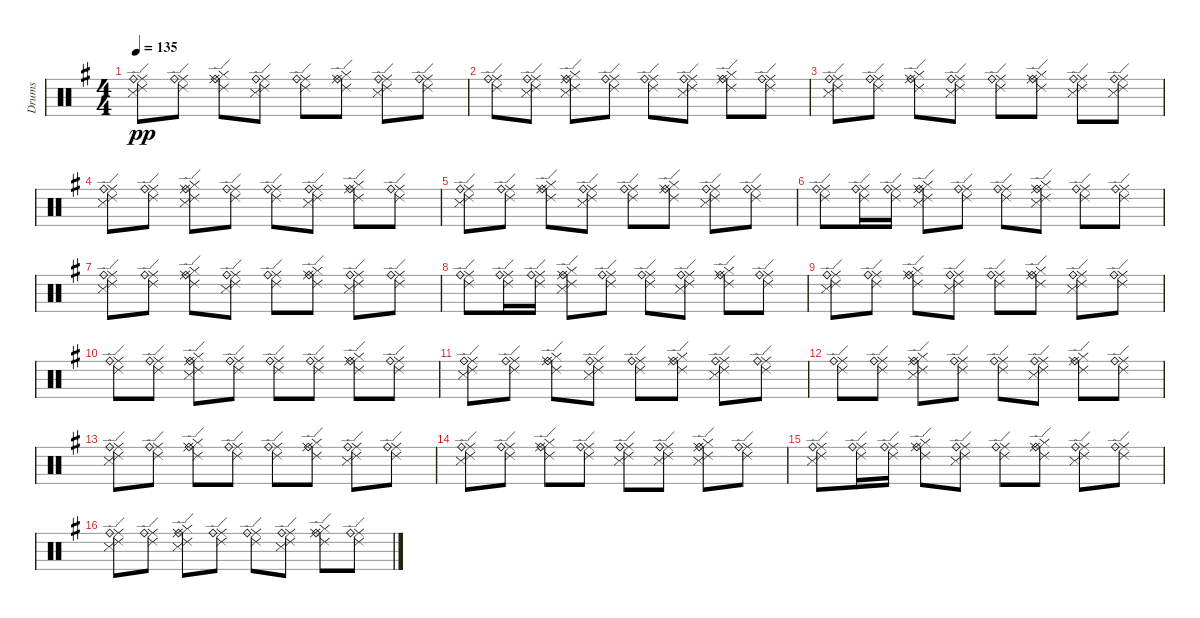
\track ("Drums" "Drums") {instrument percussion}
\staff {score}
\articulation defaults
\ts (4 4)
\tempo 135
\clef neutral
\ks eminor
("Ride (middle)" "Snare (side stick) 3" "Ride (edge) 2" "Ride (bell)").8{dy pp} ("Ride (middle)" "Ride (edge) 2" "Ride (bell)").8 ("Ride (middle)" "Hi-Hat (closed)" "Ride (edge) 2" "Ride (bell)").8 ("Ride (middle)" "Snare (side stick) 3" "Ride (edge) 2" "Ride (bell)").8 ("Ride (middle)" "Ride (edge) 2" "Ride (bell)").8 ("Ride (middle)" "Hi-Hat (closed)" "Ride (edge) 2" "Ride (bell)").8 ("Ride (middle)" "Snare (side stick) 3" "Ride (edge) 2" "Ride (bell)").8 ("Ride (middle)" "Ride (edge) 2" "Ride (bell)").8 |
("Ride (middle)" "Ride (edge) 2" "Ride (bell)").8 ("Ride (middle)" "Snare (side stick) 3" "Ride (edge) 2" "Ride (bell)").8 ("Ride (middle)" "Hi-Hat (closed)" "Snare (side stick) 3" "Ride (edge) 2" "Ride (bell)").8 ("Ride (middle)" "Ride (edge) 2" "Ride (bell)").8 ("Ride (middle)" "Ride (edge) 2" "Ride (bell)").8 ("Ride (middle)" "Snare (side stick) 3" "Ride (edge) 2" "Ride (bell)").8 ("Ride (middle)" "Hi-Hat (closed)" "Ride (edge) 2" "Ride (bell)").8 ("Ride (middle)" "Ride (edge) 2" "Ride (bell)").8 |
("Ride (middle)" "Snare (side stick) 3" "Ride (edge) 2" "Ride (bell)").8 ("Ride (middle)" "Ride (edge) 2" "Ride (bell)").8 ("Ride (middle)" "Hi-Hat (closed)" "Ride (edge) 2" "Ride (bell)").8 ("Ride (middle)" "Snare (side stick) 3" "Ride (edge) 2" "Ride (bell)").8 ("Ride (middle)" "Ride (edge) 2" "Ride (bell)").8 ("Ride (middle)" "Hi-Hat (closed)" "Ride (edge) 2" "Ride (bell)").8 ("Ride (middle)" "Snare (side stick) 3" "Ride (edge) 2" "Ride (bell)").8 ("Ride (middle)" "Snare (side stick) 3" "Ride (edge) 2" "Ride (bell)").8 |
("Ride (middle)" "Snare (side stick) 3" "Ride (edge) 2" "Ride (bell)").8 ("Ride (middle)" "Ride (edge) 2" "Ride (bell)").8 ("Ride (middle)" "Hi-Hat (closed)" "Snare (side stick) 3" "Ride (edge) 2" "Ride (bell)").8 ("Ride (middle)" "Ride (edge) 2" "Ride (bell)").8 ("Ride (middle)" "Ride (edge) 2" "Ride (bell)").8 ("Ride (middle)" "Snare (side stick) 3" "Ride (edge) 2" "Ride (bell)").8 ("Ride (middle)" "Hi-Hat (closed)" "Ride (edge) 2" "Ride (bell)").8 ("Ride (middle)" "Ride (edge) 2" "Ride (bell)").8 |
("Ride (middle)" "Snare (side stick) 3" "Ride (edge) 2" "Ride (bell)").8 ("Ride (middle)" "Ride (edge) 2" "Ride (bell)").8 ("Ride (middle)" "Hi-Hat (closed)" "Ride (edge) 2" "Ride (bell)").8 ("Ride (middle)" "Snare (side stick) 3" "Ride (edge) 2" "Ride (bell)").8 ("Ride (middle)" "Ride (edge) 2" "Ride (bell)").8 ("Ride (middle)" "Hi-Hat (closed)" "Ride (edge) 2" "Ride (bell)").8 ("Ride (middle)" "Snare (side stick) 3" "Ride (edge) 2" "Ride (bell)").8 ("Ride (middle)" "Ride (edge) 2" "Ride (bell)").8 |
("Ride (middle)" "Ride (edge) 2" "Ride (bell)").8 ("Ride (middle)" "Ride (edge) 2" "Ride (bell)").16 ("Ride (middle)" "Ride (edge) 2" "Ride (bell)").16 ("Ride (middle)" "Hi-Hat (closed)" "Snare (side stick) 3" "Ride (edge) 2" "Ride (bell)").8 ("Ride (middle)" "Ride (edge) 2" "Ride (bell)").8 ("Ride (middle)" "Ride (edge) 2" "Ride (bell)").8 ("Ride (middle)" "Hi-Hat (closed)" "Snare (side stick) 3" "Ride (edge) 2" "Ride (bell)").8 ("Ride (middle)" "Ride (edge) 2" "Ride (bell)").8 ("Ride (middle)" "Ride (edge) 2" "Ride (bell)").8 |
("Ride (middle)" "Snare (side stick) 3" "Ride (edge) 2" "Ride (bell)").8 ("Ride (middle)" "Ride (edge) 2" "Ride (bell)").8 ("Ride (middle)" "Hi-Hat (closed)" "Ride (edge) 2" "Ride (bell)").8 ("Ride (middle)" "Snare (side stick) 3" "Ride (edge) 2" "Ride (bell)").8 ("Ride (middle)" "Ride (edge) 2" "Ride (bell)").8 ("Ride (middle)" "Hi-Hat (closed)" "Ride (edge) 2" "Ride (bell)").8 ("Ride (middle)" "Snare (side stick) 3" "Ride (edge) 2" "Ride (bell)").8 ("Ride (middle)" "Ride (edge) 2" "Ride (bell)").8 |
("Ride (middle)" "Ride (edge) 2" "Ride (bell)").8 ("Ride (middle)" "Ride (edge) 2" "Ride (bell)").16 ("Ride (middle)" "Ride (edge) 2" "Ride (bell)").16 ("Ride (middle)" "Hi-Hat (closed)" "Snare (side stick) 3" "Ride (edge) 2" "Ride (bell)").8 ("Ride (middle)" "Ride (edge) 2" "Ride (bell)").8 ("Ride (middle)" "Ride (edge) 2" "Ride (bell)").8 ("Ride (middle)" "Snare (side stick) 3" "Ride (edge) 2" "Ride (bell)").8 ("Ride (middle)" "Hi-Hat (closed)" "Ride (edge) 2" "Ride (bell)").8 ("Ride (middle)" "Ride (edge) 2" "Ride (bell)").8 |
("Ride (middle)" "Snare (side stick) 3" "Ride (edge) 2" "Ride (bell)").8 ("Ride (middle)" "Ride (edge) 2" "Ride (bell)").8 ("Ride (middle)" "Hi-Hat (closed)" "Ride (edge) 2" "Ride (bell)").8 ("Ride (middle)" "Snare (side stick) 3" "Ride (edge) 2" "Ride (bell)").8 ("Ride (middle)" "Ride (edge) 2" "Ride (bell)").8 ("Ride (middle)" "Hi-Hat (closed)" "Ride (edge) 2" "Ride (bell)").8 ("Ride (middle)" "Snare (side stick) 3" "Ride (edge) 2" "Ride (bell)").8 ("Ride (middle)" "Ride (edge) 2" "Ride (bell)").8 |
("Ride (middle)" "Ride (edge) 2" "Ride (bell)").8 ("Ride (middle)" "Ride (edge) 2" "Ride (bell)").8 ("Ride (middle)" "Hi-Hat (closed)" "Snare (side stick) 3" "Ride (edge) 2" "Ride (bell)").8 ("Ride (middle)" "Ride (edge) 2" "Ride (bell)").8 ("Ride (middle)" "Ride (edge) 2" "Ride (bell)").8 ("Ride (middle)" "Ride (edge) 2" "Ride (bell)").8 ("Ride (middle)" "Hi-Hat (closed)" "Ride (edge) 2" "Ride (bell)").8 ("Ride (middle)" "Ride (edge) 2" "Ride (bell)").8 |
("Ride (middle)" "Snare (side stick) 3" "Ride (edge) 2" "Ride (bell)").8 ("Ride (middle)" "Ride (edge) 2" "Ride (bell)").8 ("Ride (middle)" "Hi-Hat (closed)" "Ride (edge) 2" "Ride (bell)").8 ("Ride (middle)" "Snare (side stick) 3" "Ride (edge) 2" "Ride (bell)").8 ("Ride (middle)" "Ride (edge) 2" "Ride (bell)").8 ("Ride (middle)" "Hi-Hat (closed)" "Ride (edge) 2" "Ride (bell)").8 ("Ride (middle)" "Snare (side stick) 3" "Ride (edge) 2" "Ride (bell)").8 ("Ride (middle)" "Ride (edge) 2" "Ride (bell)").8 |
("Ride (middle)" "Ride (edge) 2" "Ride (bell)").8 ("Ride (middle)" "Ride (edge) 2" "Ride (bell)").8 ("Ride (middle)" "Hi-Hat (closed)" "Snare (side stick) 3" "Ride (edge) 2" "Ride (bell)").8 ("Ride (middle)" "Ride (edge) 2" "Ride (bell)").8 ("Ride (middle)" "Ride (edge) 2" "Ride (bell)").8 ("Ride (middle)" "Snare (side stick) 3" "Ride (edge) 2" "Ride (bell)").8 ("Ride (middle)" "Hi-Hat (closed)" "Ride (edge) 2" "Ride (bell)").8 ("Ride (middle)" "Ride (edge) 2" "Ride (bell)").8 |
("Ride (middle)" "Snare (side stick) 3" "Ride (edge) 2" "Ride (bell)").8 ("Ride (middle)" "Ride (edge) 2" "Ride (bell)").8 ("Ride (middle)" "Hi-Hat (closed)" "Ride (edge) 2" "Ride (bell)").8 ("Ride (middle)" "Ride (edge) 2" "Ride (bell)").8 ("Ride (middle)" "Ride (edge) 2" "Ride (bell)").8 ("Ride (middle)" "Hi-Hat (closed)" "Ride (edge) 2" "Ride (bell)").8 ("Ride (middle)" "Snare (side stick) 3" "Ride (edge) 2" "Ride (bell)").8 ("Ride (middle)" "Ride (edge) 2" "Ride (bell)").8 |
("Ride (middle)" "Snare (side stick) 3" "Ride (edge) 2" "Ride (bell)").8 ("Ride (middle)" "Ride (edge) 2" "Ride (bell)").8 ("Ride (middle)" "Hi-Hat (closed)" "Ride (edge) 2" "Ride (bell)").8 ("Ride (middle)" "Ride (edge) 2" "Ride (bell)").8 ("Ride (middle)" "Snare (side stick) 3" "Ride (edge) 2" "Ride (bell)").8 ("Ride (middle)" "Snare (side stick) 3" "Ride (edge) 2" "Ride (bell)").8 ("Ride (middle)" "Hi-Hat (closed)" "Snare (side stick) 3" "Ride (edge) 2" "Ride (bell)").8 ("Ride (middle)" "Ride (edge) 2" "Ride (bell)").8 |
("Ride (middle)" "Snare (side stick) 3" "Ride (edge) 2" "Ride (bell)").8 ("Ride (middle)" "Ride (edge) 2" "Ride (bell)").16 ("Ride (middle)" "Ride (edge) 2" "Ride (bell)").16 ("Ride (middle)" "Hi-Hat (closed)" "Ride (edge) 2" "Ride (bell)").8 ("Ride (middle)" "Snare (side stick) 3" "Ride (edge) 2" "Ride (bell)").8 ("Ride (middle)" "Ride (edge) 2" "Ride (bell)").8 ("Ride (middle)" "Hi-Hat (closed)" "Ride (edge) 2" "Ride (bell)").8 ("Ride (middle)" "Snare (side stick) 3" "Ride (edge) 2" "Ride (bell)").8 ("Ride (middle)" "Ride (edge) 2" "Ride (bell)").8 |
("Ride (middle)" "Snare (side stick) 3" "Ride (edge) 2" "Ride (bell)").8 ("Ride (middle)" "Ride (edge) 2" "Ride (bell)").8 ("Ride (middle)" "Hi-Hat (closed)" "Snare (side stick) 3" "Ride (edge) 2" "Ride (bell)").8 ("Ride (middle)" "Ride (edge) 2" "Ride (bell)").8 ("Ride (middle)" "Ride (edge) 2" "Ride (bell)").8 ("Ride (middle)" "Snare (side stick) 3" "Ride (edge) 2" "Ride (bell)").8 ("Ride (middle)" "Hi-Hat (closed)" "Ride (edge) 2" "Ride (bell)").8 ("Ride (middle)" "Ride (edge) 2" "Ride (bell)").8
